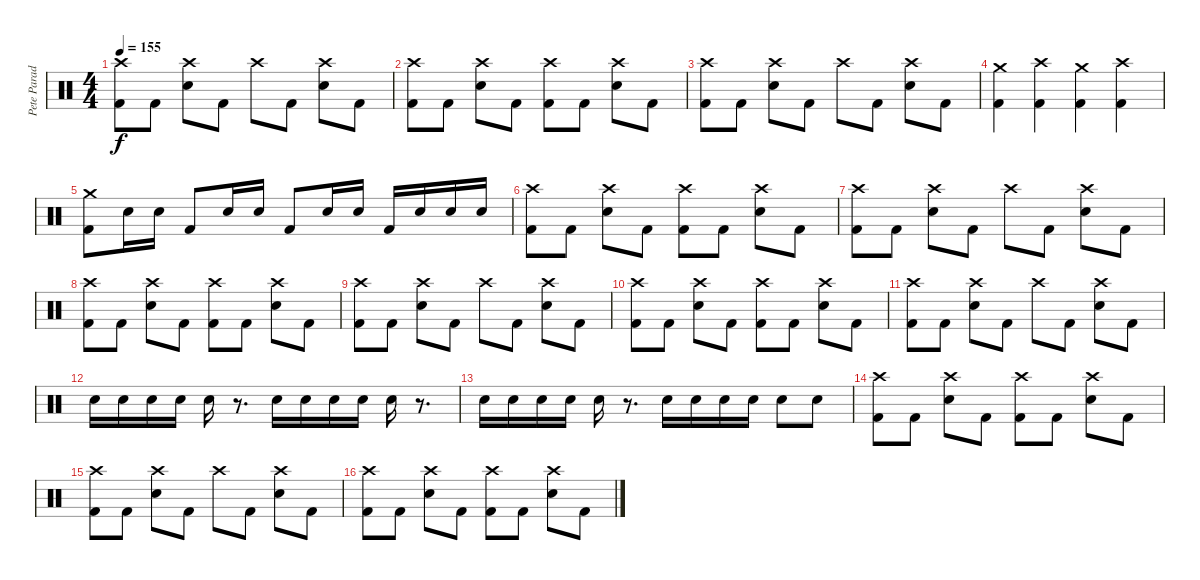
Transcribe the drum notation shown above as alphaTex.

\track ("Pete Parada - Drums" "Pete Parad") {instrument percussion}
\staff {score}
\articulation defaults
\ts (4 4)
\tempo 155
\clef neutral
\ks c
("Crash high (hit)" "Kick (hit) 2").8{dy f} "Kick (hit) 2".8 ("Crash high (hit)" "Electric Snare (hit)").8 "Kick (hit) 2".8 "Crash high (hit)".8 "Kick (hit) 2".8 ("Crash high (hit)" "Electric Snare (hit)").8 "Kick (hit) 2".8 |
("Crash high (hit)" "Kick (hit) 2").8 "Kick (hit) 2".8 ("Crash high (hit)" "Electric Snare (hit)").8 "Kick (hit) 2".8 ("Crash high (hit)" "Kick (hit) 2").8 "Kick (hit) 2".8 ("Crash high (hit)" "Electric Snare (hit)").8 "Kick (hit) 2".8 |
("Crash high (hit)" "Kick (hit) 2").8 "Kick (hit) 2".8 ("Crash high (hit)" "Electric Snare (hit)").8 "Kick (hit) 2".8 "Crash high (hit)".8 "Kick (hit) 2".8 ("Crash high (hit)" "Electric Snare (hit)").8 "Kick (hit) 2".8 |
("Crash medium (hit)" "Kick (hit) 2").4 ("Crash high (hit)" "Kick (hit) 2").4 ("Crash medium (hit)" "Kick (hit) 2").4 ("Crash high (hit)" "Kick (hit) 2").4 |
("Crash medium (hit)" "Kick (hit) 2").8 "Electric Snare (hit)".16 "Electric Snare (hit)".16 "Kick (hit) 2".8 "Electric Snare (hit)".16 "Electric Snare (hit)".16 "Kick (hit) 2".8 "Electric Snare (hit)".16 "Electric Snare (hit)".16 "Kick (hit) 2".16 "Electric Snare (hit)".16 "Electric Snare (hit)".16 "Electric Snare (hit)".16 |
("Crash high (hit)" "Kick (hit) 2").8 "Kick (hit) 2".8 ("Crash high (hit)" "Electric Snare (hit)").8 "Kick (hit) 2".8 ("Crash high (hit)" "Kick (hit) 2").8 "Kick (hit) 2".8 ("Crash high (hit)" "Electric Snare (hit)").8 "Kick (hit) 2".8 |
("Crash high (hit)" "Kick (hit) 2").8 "Kick (hit) 2".8 ("Crash high (hit)" "Electric Snare (hit)").8 "Kick (hit) 2".8 "Crash high (hit)".8 "Kick (hit) 2".8 ("Crash high (hit)" "Electric Snare (hit)").8 "Kick (hit) 2".8 |
("Crash high (hit)" "Kick (hit) 2").8 "Kick (hit) 2".8 ("Crash high (hit)" "Electric Snare (hit)").8 "Kick (hit) 2".8 ("Crash high (hit)" "Kick (hit) 2").8 "Kick (hit) 2".8 ("Crash high (hit)" "Electric Snare (hit)").8 "Kick (hit) 2".8 |
("Crash high (hit)" "Kick (hit) 2").8 "Kick (hit) 2".8 ("Crash high (hit)" "Electric Snare (hit)").8 "Kick (hit) 2".8 "Crash high (hit)".8 "Kick (hit) 2".8 ("Crash high (hit)" "Electric Snare (hit)").8 "Kick (hit) 2".8 |
("Crash high (hit)" "Kick (hit) 2").8 "Kick (hit) 2".8 ("Crash high (hit)" "Electric Snare (hit)").8 "Kick (hit) 2".8 ("Crash high (hit)" "Kick (hit) 2").8 "Kick (hit) 2".8 ("Crash high (hit)" "Electric Snare (hit)").8 "Kick (hit) 2".8 |
("Crash high (hit)" "Kick (hit) 2").8 "Kick (hit) 2".8 ("Crash high (hit)" "Electric Snare (hit)").8 "Kick (hit) 2".8 "Crash high (hit)".8 "Kick (hit) 2".8 ("Crash high (hit)" "Electric Snare (hit)").8 "Kick (hit) 2".8 |
"Electric Snare (hit)".16 "Electric Snare (hit)".16 "Electric Snare (hit)".16 "Electric Snare (hit)".16 "Electric Snare (hit)".16 r.8{d} "Electric Snare (hit)".16 "Electric Snare (hit)".16 "Electric Snare (hit)".16 "Electric Snare (hit)".16 "Electric Snare (hit)".16 r.8{d} |
"Electric Snare (hit)".16 "Electric Snare (hit)".16 "Electric Snare (hit)".16 "Electric Snare (hit)".16 "Electric Snare (hit)".16 r.8{d} "Electric Snare (hit)".16 "Electric Snare (hit)".16 "Electric Snare (hit)".16 "Electric Snare (hit)".16 "Electric Snare (hit)".8 "Electric Snare (hit)".8 |
("Crash high (hit)" "Kick (hit) 2").8 "Kick (hit) 2".8 ("Crash high (hit)" "Electric Snare (hit)").8 "Kick (hit) 2".8 ("Crash high (hit)" "Kick (hit) 2").8 "Kick (hit) 2".8 ("Crash high (hit)" "Electric Snare (hit)").8 "Kick (hit) 2".8 |
("Crash high (hit)" "Kick (hit) 2").8 "Kick (hit) 2".8 ("Crash high (hit)" "Electric Snare (hit)").8 "Kick (hit) 2".8 "Crash high (hit)".8 "Kick (hit) 2".8 ("Crash high (hit)" "Electric Snare (hit)").8 "Kick (hit) 2".8 |
("Crash high (hit)" "Kick (hit) 2").8 "Kick (hit) 2".8 ("Crash high (hit)" "Electric Snare (hit)").8 "Kick (hit) 2".8 ("Crash high (hit)" "Kick (hit) 2").8 "Kick (hit) 2".8 ("Crash high (hit)" "Electric Snare (hit)").8 "Kick (hit) 2".8
